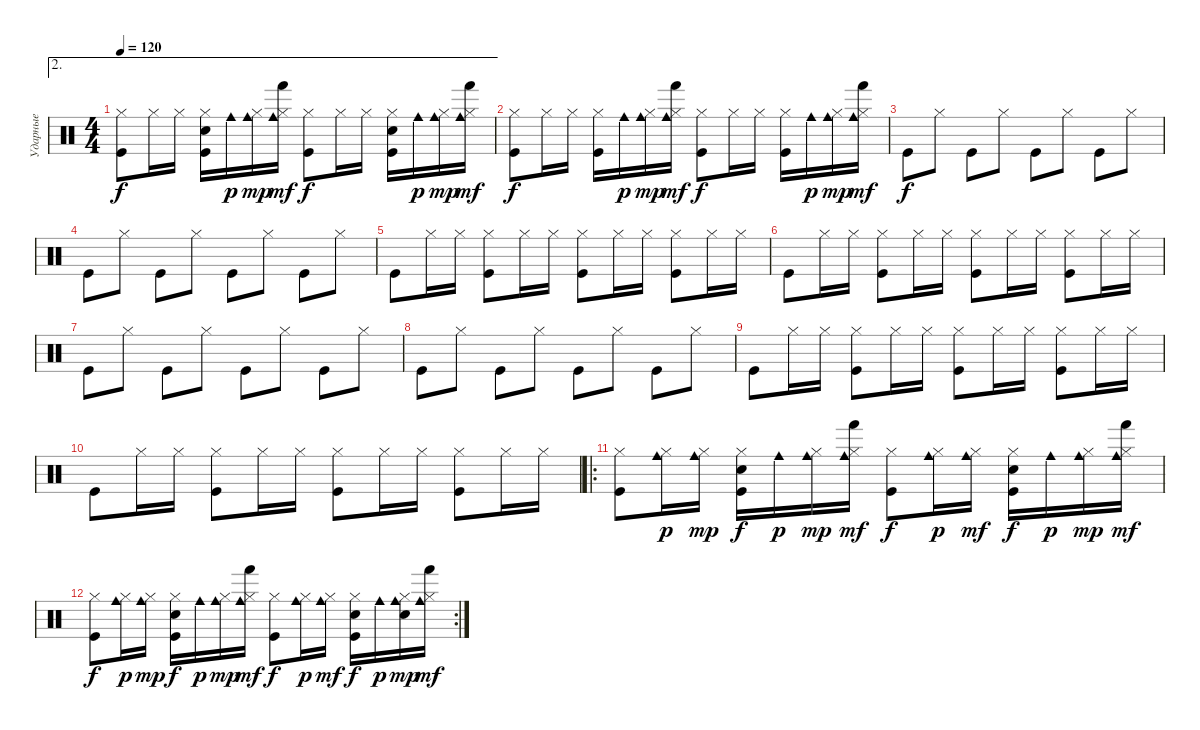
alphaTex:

\track ("Ударные" "Ударные") {instrument percussion}
\staff {score}
\articulation defaults
\ae 2
\ts (4 4)
\tempo 120
\clef neutral
\ks c
("Hi-Hat (closed)" "Kick (hit)").8{dy f} "Hi-Hat (closed)".16 "Hi-Hat (closed)".16 ("Hi-Hat (closed)" "Snare (hit) 2" "Kick (hit)").16 "Cowbell medium (hit)".16{dy p} ("Hi-Hat (closed)" "Cowbell medium (hit)").16{dy mp} ("Hi-Hat (closed)" "Hand (hit)" "Cowbell medium (hit)").16{dy mf} ("Hi-Hat (closed)" "Kick (hit)").8{dy f} "Hi-Hat (closed)".16 "Hi-Hat (closed)".16 ("Hi-Hat (closed)" "Snare (hit) 2" "Kick (hit)").16 "Cowbell medium (hit)".16{dy p} ("Hi-Hat (closed)" "Cowbell medium (hit)").16{dy mp} ("Hi-Hat (closed)" "Hand (hit)" "Cowbell medium (hit)").16{dy mf} |
("Hi-Hat (closed)" "Kick (hit)").8{dy f} "Hi-Hat (closed)".16 "Hi-Hat (closed)".16 ("Hi-Hat (closed)" "Kick (hit)").16 "Cowbell medium (hit)".16{dy p} ("Hi-Hat (closed)" "Cowbell medium (hit)").16{dy mp} ("Hi-Hat (closed)" "Hand (hit)" "Cowbell medium (hit)").16{dy mf} ("Hi-Hat (closed)" "Kick (hit)").8{dy f} "Hi-Hat (closed)".16 "Hi-Hat (closed)".16 ("Hi-Hat (closed)" "Kick (hit)").16 "Cowbell medium (hit)".16{dy p} ("Hi-Hat (closed)" "Cowbell medium (hit)").16{dy mp} ("Hi-Hat (closed)" "Hand (hit)" "Cowbell medium (hit)").16{dy mf} |
"Kick (hit)".8{dy f} "Hi-Hat (closed)".8 "Kick (hit)".8 "Hi-Hat (closed)".8 "Kick (hit)".8 "Hi-Hat (closed)".8 "Kick (hit)".8 "Hi-Hat (closed)".8 |
"Kick (hit)".8 "Hi-Hat (closed)".8 "Kick (hit)".8 "Hi-Hat (closed)".8 "Kick (hit)".8 "Hi-Hat (closed)".8 "Kick (hit)".8 "Hi-Hat (closed)".8 |
"Kick (hit)".8 "Hi-Hat (closed)".16 "Hi-Hat (closed)".16 ("Kick (hit)" "Hi-Hat (closed)").8 "Hi-Hat (closed)".16 "Hi-Hat (closed)".16 ("Kick (hit)" "Hi-Hat (closed)").8 "Hi-Hat (closed)".16 "Hi-Hat (closed)".16 ("Kick (hit)" "Hi-Hat (closed)").8 "Hi-Hat (closed)".16 "Hi-Hat (closed)".16 |
"Kick (hit)".8 "Hi-Hat (closed)".16 "Hi-Hat (closed)".16 ("Kick (hit)" "Hi-Hat (closed)").8 "Hi-Hat (closed)".16 "Hi-Hat (closed)".16 ("Kick (hit)" "Hi-Hat (closed)").8 "Hi-Hat (closed)".16 "Hi-Hat (closed)".16 ("Kick (hit)" "Hi-Hat (closed)").8 "Hi-Hat (closed)".16 "Hi-Hat (closed)".16 |
"Kick (hit)".8 "Hi-Hat (closed)".8 "Kick (hit)".8 "Hi-Hat (closed)".8 "Kick (hit)".8 "Hi-Hat (closed)".8 "Kick (hit)".8 "Hi-Hat (closed)".8 |
"Kick (hit)".8 "Hi-Hat (closed)".8 "Kick (hit)".8 "Hi-Hat (closed)".8 "Kick (hit)".8 "Hi-Hat (closed)".8 "Kick (hit)".8 "Hi-Hat (closed)".8 |
"Kick (hit)".8 "Hi-Hat (closed)".16 "Hi-Hat (closed)".16 ("Kick (hit)" "Hi-Hat (closed)").8 "Hi-Hat (closed)".16 "Hi-Hat (closed)".16 ("Kick (hit)" "Hi-Hat (closed)").8 "Hi-Hat (closed)".16 "Hi-Hat (closed)".16 ("Kick (hit)" "Hi-Hat (closed)").8 "Hi-Hat (closed)".16 "Hi-Hat (closed)".16 |
"Kick (hit)".8 "Hi-Hat (closed)".16 "Hi-Hat (closed)".16 ("Kick (hit)" "Hi-Hat (closed)").8 "Hi-Hat (closed)".16 "Hi-Hat (closed)".16 ("Kick (hit)" "Hi-Hat (closed)").8 "Hi-Hat (closed)".16 "Hi-Hat (closed)".16 ("Kick (hit)" "Hi-Hat (closed)").8 "Hi-Hat (closed)".16 "Hi-Hat (closed)".16 |
\ro
("Hi-Hat (closed)" "Kick (hit)").8 ("Hi-Hat (closed)" "Cowbell medium (hit)").16{dy p} ("Hi-Hat (closed)" "Cowbell medium (hit)").16{dy mp} ("Hi-Hat (closed)" "Snare (hit) 2" "Kick (hit)").16{dy f} "Cowbell medium (hit)".16{dy p} ("Hi-Hat (closed)" "Cowbell medium (hit)").16{dy mp} ("Hi-Hat (closed)" "Hand (hit)" "Cowbell medium (hit)").16{dy mf} ("Hi-Hat (closed)" "Kick (hit)").8{dy f} ("Hi-Hat (closed)" "Cowbell medium (hit)").16{dy p} ("Hi-Hat (closed)" "Cowbell medium (hit)").16{dy mf} ("Hi-Hat (closed)" "Snare (hit) 2" "Kick (hit)").16{dy f} "Cowbell medium (hit)".16{dy p} ("Hi-Hat (closed)" "Cowbell medium (hit)").16{dy mp} ("Hi-Hat (closed)" "Hand (hit)" "Cowbell medium (hit)").16{dy mf} |
\rc 2
("Hi-Hat (closed)" "Kick (hit)").8{dy f} ("Hi-Hat (closed)" "Cowbell medium (hit)").16{dy p} ("Hi-Hat (closed)" "Cowbell medium (hit)").16{dy mp} ("Hi-Hat (closed)" "Snare (hit) 2" "Kick (hit)").16{dy f} "Cowbell medium (hit)".16{dy p} ("Hi-Hat (closed)" "Cowbell medium (hit)").16{dy mp} ("Hi-Hat (closed)" "Hand (hit)" "Cowbell medium (hit)").16{dy mf} ("Hi-Hat (closed)" "Kick (hit)").8{dy f} ("Hi-Hat (closed)" "Cowbell medium (hit)").16{dy p} ("Hi-Hat (closed)" "Cowbell medium (hit)").16{dy mf} ("Hi-Hat (closed)" "Snare (hit) 2" "Kick (hit)").16{dy f} "Cowbell medium (hit)".16{dy p} ("Hi-Hat (closed)" "Snare (hit) 2" "Cowbell medium (hit)").16{dy mp} ("Hi-Hat (closed)" "Hand (hit)" "Cowbell medium (hit)").16{dy mf}
